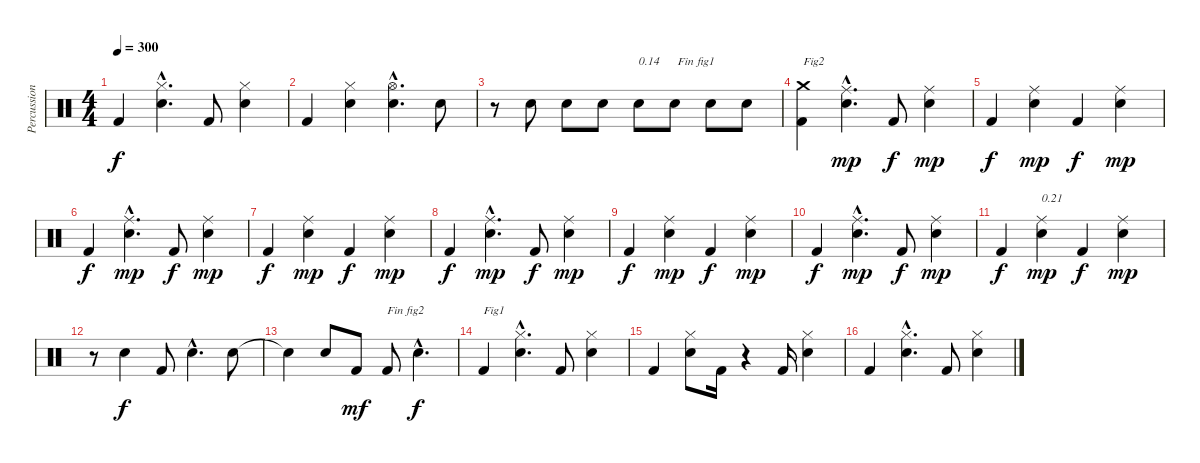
\track ("Percussions" "Percussion") {instrument percussion}
\staff {score}
\articulation defaults
\ts (4 4)
\tempo 300
\clef neutral
\ks c "Kick (hit) 2".4{dy f}
("Electric Snare (hit)"{hac} "Hi-Hat (closed)"{hac}).4{d} "Kick (hit) 2".8 ("Electric Snare (hit)" "Hi-Hat (closed)").4 |
"Kick (hit) 2".4 ("Electric Snare (hit)" "Hi-Hat (closed)").4 ("Electric Snare (hit)"{hac} "Hi-Hat (open)"{hac}).4{d} "Electric Snare (hit)".8 |
r.8 "Electric Snare (hit)".8 "Electric Snare (hit)".8 "Electric Snare (hit)".8 "Electric Snare (hit)".8{txt "0.14"} "Electric Snare (hit)".8{txt " Fin fig1"} "Electric Snare (hit)".8 "Electric Snare (hit)".8 |
("Kick (hit) 2" "Crash medium (hit)").4{txt "Fig2"} ("Electric Snare (hit)"{hac} "Ride (middle)"{hac}).4{d dy mp} "Kick (hit) 2".8{dy f} ("Electric Snare (hit)" "Ride (middle)").4{dy mp} |
"Kick (hit) 2".4{dy f} ("Electric Snare (hit)" "Ride (middle)").4{dy mp} "Kick (hit) 2".4{dy f} ("Electric Snare (hit)" "Ride (middle)").4{dy mp} |
"Kick (hit) 2".4{dy f} ("Electric Snare (hit)"{hac} "Ride (middle)"{hac}).4{d dy mp} "Kick (hit) 2".8{dy f} ("Electric Snare (hit)" "Ride (middle)").4{dy mp} |
"Kick (hit) 2".4{dy f} ("Electric Snare (hit)" "Ride (middle)").4{dy mp} "Kick (hit) 2".4{dy f} ("Electric Snare (hit)" "Ride (middle)").4{dy mp} |
"Kick (hit) 2".4{dy f} ("Electric Snare (hit)"{hac} "Ride (middle)"{hac}).4{d dy mp} "Kick (hit) 2".8{dy f} ("Electric Snare (hit)" "Ride (middle)").4{dy mp} |
"Kick (hit) 2".4{dy f} ("Electric Snare (hit)" "Ride (middle)").4{dy mp} "Kick (hit) 2".4{dy f} ("Electric Snare (hit)" "Ride (middle)").4{dy mp} |
"Kick (hit) 2".4{dy f} ("Electric Snare (hit)"{hac} "Ride (middle)"{hac}).4{d dy mp} "Kick (hit) 2".8{dy f} ("Electric Snare (hit)" "Ride (middle)").4{dy mp} |
"Kick (hit) 2".4{dy f} ("Electric Snare (hit)" "Ride (middle)").4{txt "0.21" dy mp} "Kick (hit) 2".4{dy f} ("Electric Snare (hit)" "Ride (middle)").4{dy mp} |
r.8 "Electric Snare (hit)".4{dy f} "Kick (hit) 2".8 "Electric Snare (hit)"{hac}.4{d} "Electric Snare (hit)".8 |
"Snare (hit)"{t}.4 "Electric Snare (hit)".8 "Kick (hit) 2".8{dy mf} "Kick (hit) 2".8{txt "Fin fig2"} "Electric Snare (hit)"{hac}.4{d dy f} |
"Kick (hit) 2".4{txt "Fig1"} ("Electric Snare (hit)"{hac} "Hi-Hat (closed)"{hac}).4{d} "Kick (hit) 2".8 ("Electric Snare (hit)" "Hi-Hat (closed)").4 |
"Kick (hit) 2".4 ("Electric Snare (hit)" "Hi-Hat (closed)").8 "Kick (hit) 2".16 r.4 "Kick (hit) 2".16 ("Electric Snare (hit)" "Hi-Hat (closed)").4 |
"Kick (hit) 2".4 ("Electric Snare (hit)"{hac} "Hi-Hat (closed)"{hac}).4{d} "Kick (hit) 2".8 ("Electric Snare (hit)" "Hi-Hat (closed)").4
